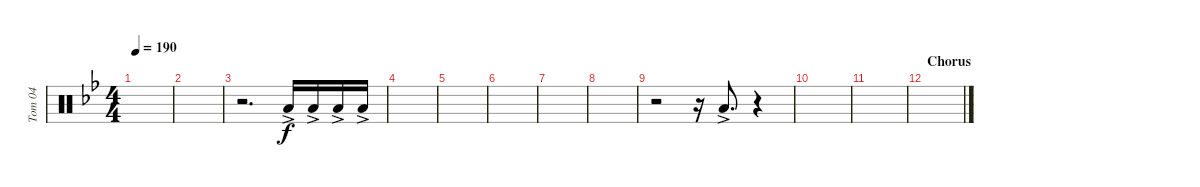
\track ("Tom 04" "Tom 04") {instrument percussion}
\staff {score}
\articulation defaults
\ts (4 4)
\tempo 190
\clef neutral
\ks bb
|
|
r.2{d} "Low Tom (hit)"{ac}.16 "Low Tom (hit)"{ac}.16 "Low Tom (hit)"{ac}.16 "Low Tom (hit)"{ac}.16 |
|
|
|
|
|
r.2 r.16 "Low Tom (hit)"{ac}.8{d} r.4 |
|
|
\section ("" "Chorus")
